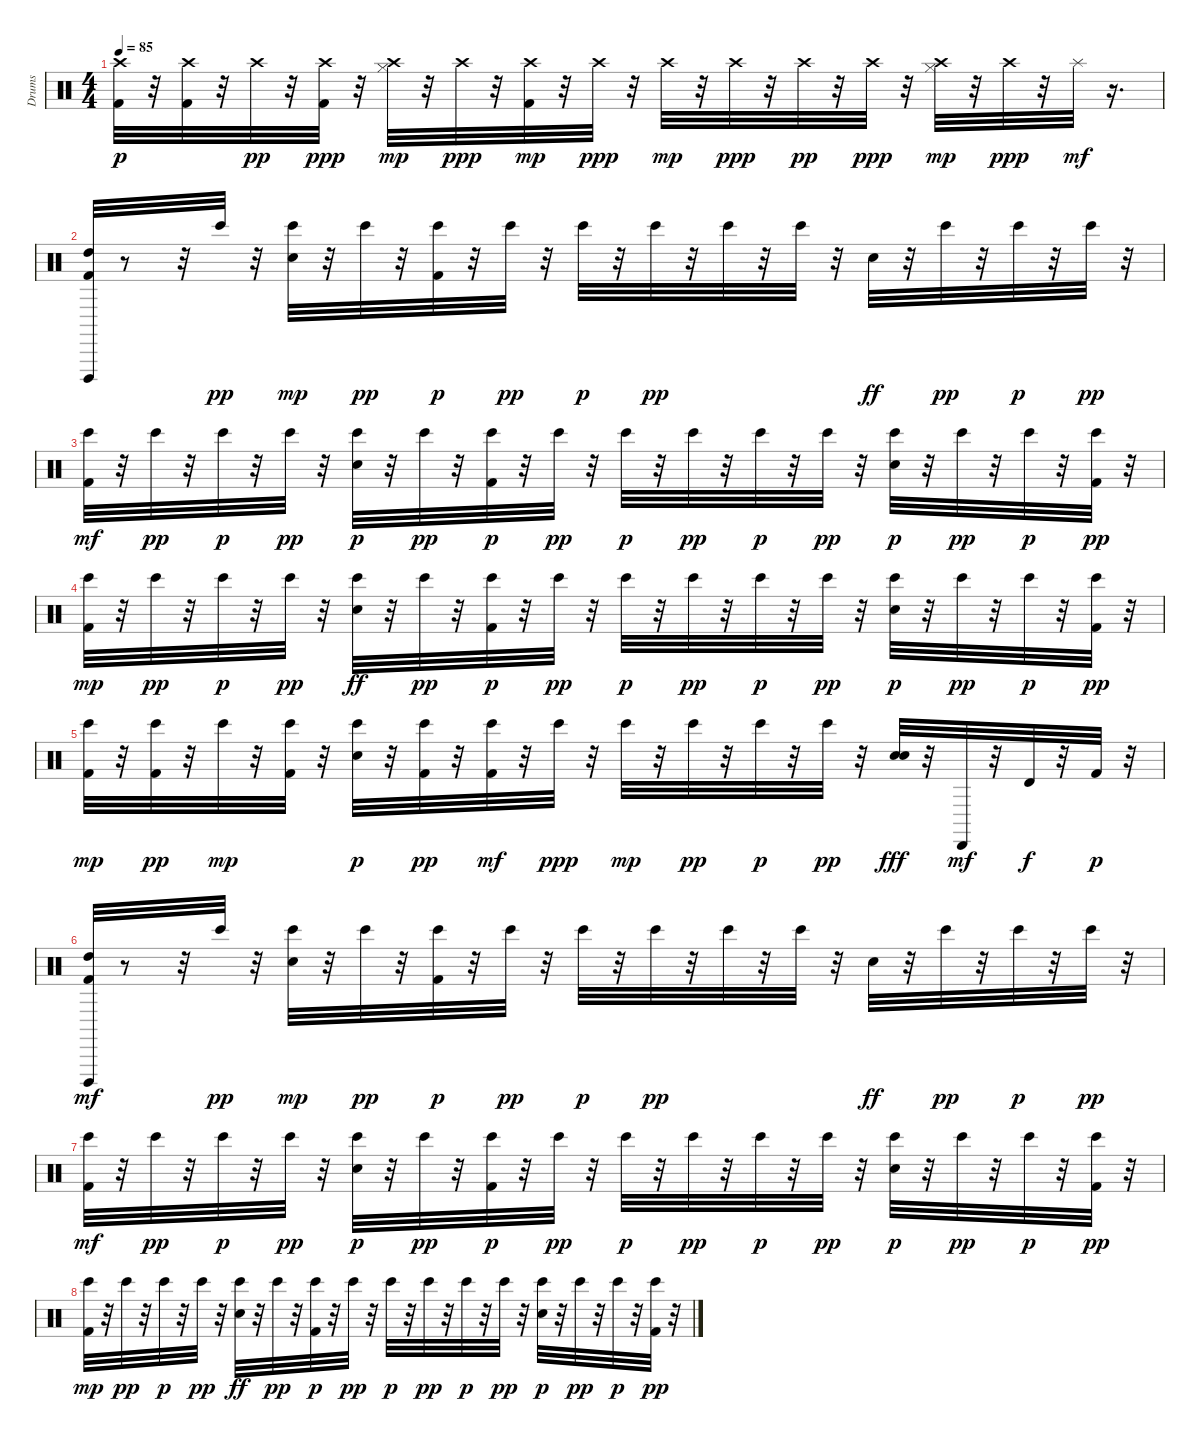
\track ("Drums" "Drums") {instrument percussion}
\staff {score}
\articulation defaults
\ts (4 4)
\tempo 85
\clef neutral
\ks c
("Crash high (hit)" "Kick (hit) 2").32{dy p} r.32 ("Kick (hit) 2" "Crash high (hit)").32 r.32 "Crash high (hit)".32{dy pp} r.32 ("Kick (hit) 2" "Crash high (hit)").32{dy ppp} r.32 ("Hi-Hat (closed)" "Crash high (hit)").32{dy mp} r.32 "Crash high (hit)".32{dy ppp} r.32 ("Crash high (hit)" "Kick (hit) 2").32{dy mp} r.32 "Crash high (hit)".32{dy ppp} r.32 "Crash high (hit)".32{dy mp} r.32 "Crash high (hit)".32{dy ppp} r.32 "Crash high (hit)".32{dy pp} r.32 "Crash high (hit)".32{dy ppp} r.32 ("Hi-Hat (closed)" "Crash high (hit)").32{dy mp} r.32 "Crash high (hit)".32{dy ppp} r.32 "Splash (hit)".32{dy mf} r.16{d} |
("Kick (hit) 2" "High Tom (hit)" "Cuica (open)").32 r.8 r.32 "Bongo High (hit)".32{dy pp} r.32 ("Snare (hit) 2" "Bongo High (hit)").32{dy mp} r.32 "Bongo High (hit)".32{dy pp} r.32 ("Kick (hit) 2" "Bongo High (hit)").32{dy p} r.32 "Bongo High (hit)".32{dy pp} r.32 "Bongo High (hit)".32{dy p} r.32 "Bongo High (hit)".32{dy pp} r.32 "Bongo High (hit)".32 r.32 "Bongo High (hit)".32 r.32 "Snare (hit) 2".32{dy ff} r.32 "Bongo High (hit)".32{dy pp} r.32 "Bongo High (hit)".32{dy p} r.32 "Bongo High (hit)".32{dy pp} r.32 |
("Bongo High (hit)" "Kick (hit) 2").32{dy mf} r.32 "Bongo High (hit)".32{dy pp} r.32 "Bongo High (hit)".32{dy p} r.32 "Bongo High (hit)".32{dy pp} r.32 ("Snare (hit) 2" "Bongo High (hit)").32{dy p} r.32 "Bongo High (hit)".32{dy pp} r.32 ("Kick (hit) 2" "Bongo High (hit)").32{dy p} r.32 "Bongo High (hit)".32{dy pp} r.32 "Bongo High (hit)".32{dy p} r.32 "Bongo High (hit)".32{dy pp} r.32 "Bongo High (hit)".32{dy p} r.32 "Bongo High (hit)".32{dy pp} r.32 ("Snare (hit) 2" "Bongo High (hit)").32{dy p} r.32 "Bongo High (hit)".32{dy pp} r.32 "Bongo High (hit)".32{dy p} r.32 ("Bongo High (hit)" "Kick (hit) 2").32{dy pp} r.32 |
("Kick (hit) 2" "Bongo High (hit)").32{dy mp} r.32 "Bongo High (hit)".32{dy pp} r.32 "Bongo High (hit)".32{dy p} r.32 "Bongo High (hit)".32{dy pp} r.32 ("Bongo High (hit)" "Snare (hit) 2").32{dy ff} r.32 "Bongo High (hit)".32{dy pp} r.32 ("Kick (hit) 2" "Bongo High (hit)").32{dy p} r.32 "Bongo High (hit)".32{dy pp} r.32 "Bongo High (hit)".32{dy p} r.32 "Bongo High (hit)".32{dy pp} r.32 "Bongo High (hit)".32{dy p} r.32 "Bongo High (hit)".32{dy pp} r.32 ("Snare (hit) 2" "Bongo High (hit)").32{dy p} r.32 "Bongo High (hit)".32{dy pp} r.32 "Bongo High (hit)".32{dy p} r.32 ("Kick (hit) 2" "Bongo High (hit)").32{dy pp} r.32 |
("Bongo High (hit)" "Kick (hit) 2").32{dy mp} r.32 ("Kick (hit) 2" "Bongo High (hit)").32{dy pp} r.32 "Bongo High (hit)".32{dy mp} r.32 ("Bongo High (hit)" "Kick (hit) 2").32 r.32 ("Snare (hit) 2" "Bongo High (hit)").32{dy p} r.32 ("Kick (hit) 2" "Bongo High (hit)").32{dy pp} r.32 ("Kick (hit) 2" "Bongo High (hit)").32{dy mf} r.32 "Bongo High (hit)".32{dy ppp} r.32 "Bongo High (hit)".32{dy mp} r.32 "Bongo High (hit)".32{dy pp} r.32 "Bongo High (hit)".32{dy p} r.32 "Bongo High (hit)".32{dy pp} r.32 ("Snare (hit) 2" "Snare (hit) 2").32{dy fff} r.32 "Cabasa (hit)".32{dy mf} r.32 "Timbale high (hit)".32{dy f} r.32 "Kick (hit) 2".32{dy p} r.32 |
("Kick (hit) 2" "High Tom (hit)" "Cuica (open)").32{dy mf} r.8 r.32 "Bongo High (hit)".32{dy pp} r.32 ("Snare (hit) 2" "Bongo High (hit)").32{dy mp} r.32 "Bongo High (hit)".32{dy pp} r.32 ("Kick (hit) 2" "Bongo High (hit)").32{dy p} r.32 "Bongo High (hit)".32{dy pp} r.32 "Bongo High (hit)".32{dy p} r.32 "Bongo High (hit)".32{dy pp} r.32 "Bongo High (hit)".32 r.32 "Bongo High (hit)".32 r.32 "Snare (hit) 2".32{dy ff} r.32 "Bongo High (hit)".32{dy pp} r.32 "Bongo High (hit)".32{dy p} r.32 "Bongo High (hit)".32{dy pp} r.32 |
("Bongo High (hit)" "Kick (hit) 2").32{dy mf} r.32 "Bongo High (hit)".32{dy pp} r.32 "Bongo High (hit)".32{dy p} r.32 "Bongo High (hit)".32{dy pp} r.32 ("Snare (hit) 2" "Bongo High (hit)").32{dy p} r.32 "Bongo High (hit)".32{dy pp} r.32 ("Kick (hit) 2" "Bongo High (hit)").32{dy p} r.32 "Bongo High (hit)".32{dy pp} r.32 "Bongo High (hit)".32{dy p} r.32 "Bongo High (hit)".32{dy pp} r.32 "Bongo High (hit)".32{dy p} r.32 "Bongo High (hit)".32{dy pp} r.32 ("Snare (hit) 2" "Bongo High (hit)").32{dy p} r.32 "Bongo High (hit)".32{dy pp} r.32 "Bongo High (hit)".32{dy p} r.32 ("Bongo High (hit)" "Kick (hit) 2").32{dy pp} r.32 |
("Kick (hit) 2" "Bongo High (hit)").32{dy mp} r.32 "Bongo High (hit)".32{dy pp} r.32 "Bongo High (hit)".32{dy p} r.32 "Bongo High (hit)".32{dy pp} r.32 ("Bongo High (hit)" "Snare (hit) 2").32{dy ff} r.32 "Bongo High (hit)".32{dy pp} r.32 ("Kick (hit) 2" "Bongo High (hit)").32{dy p} r.32 "Bongo High (hit)".32{dy pp} r.32 "Bongo High (hit)".32{dy p} r.32 "Bongo High (hit)".32{dy pp} r.32 "Bongo High (hit)".32{dy p} r.32 "Bongo High (hit)".32{dy pp} r.32 ("Snare (hit) 2" "Bongo High (hit)").32{dy p} r.32 "Bongo High (hit)".32{dy pp} r.32 "Bongo High (hit)".32{dy p} r.32 ("Kick (hit) 2" "Bongo High (hit)").32{dy pp} r.32
